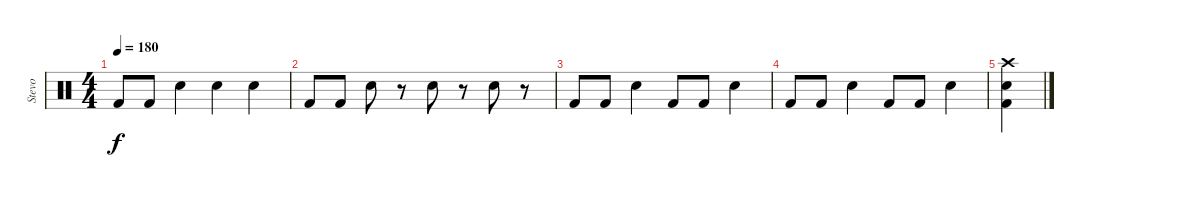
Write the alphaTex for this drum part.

\track ("Stevo" "Stevo") {instrument percussion}
\staff {score}
\articulation defaults
\ts (4 4)
\tempo 180
\clef neutral
\ks c "Kick (hit) 2".8{dy f} "Kick (hit) 2".8 "Electric Snare (hit)".4 "Electric Snare (hit)".4 "Electric Snare (hit)".4
|
"Kick (hit) 2".8 "Kick (hit) 2".8 "Electric Snare (hit)".8 r.8 "Electric Snare (hit)".8 r.8 "Electric Snare (hit)".8 r.8 |
"Kick (hit) 2".8 "Kick (hit) 2".8 "Electric Snare (hit)".4 "Kick (hit) 2".8 "Kick (hit) 2".8 "Electric Snare (hit)".4 |
"Kick (hit) 2".8 "Kick (hit) 2".8 "Electric Snare (hit)".4 "Kick (hit) 2".8 "Kick (hit) 2".8 "Electric Snare (hit)".4 |
("Electric Snare (hit)" "Crash high (hit)" "Kick (hit) 2").4
